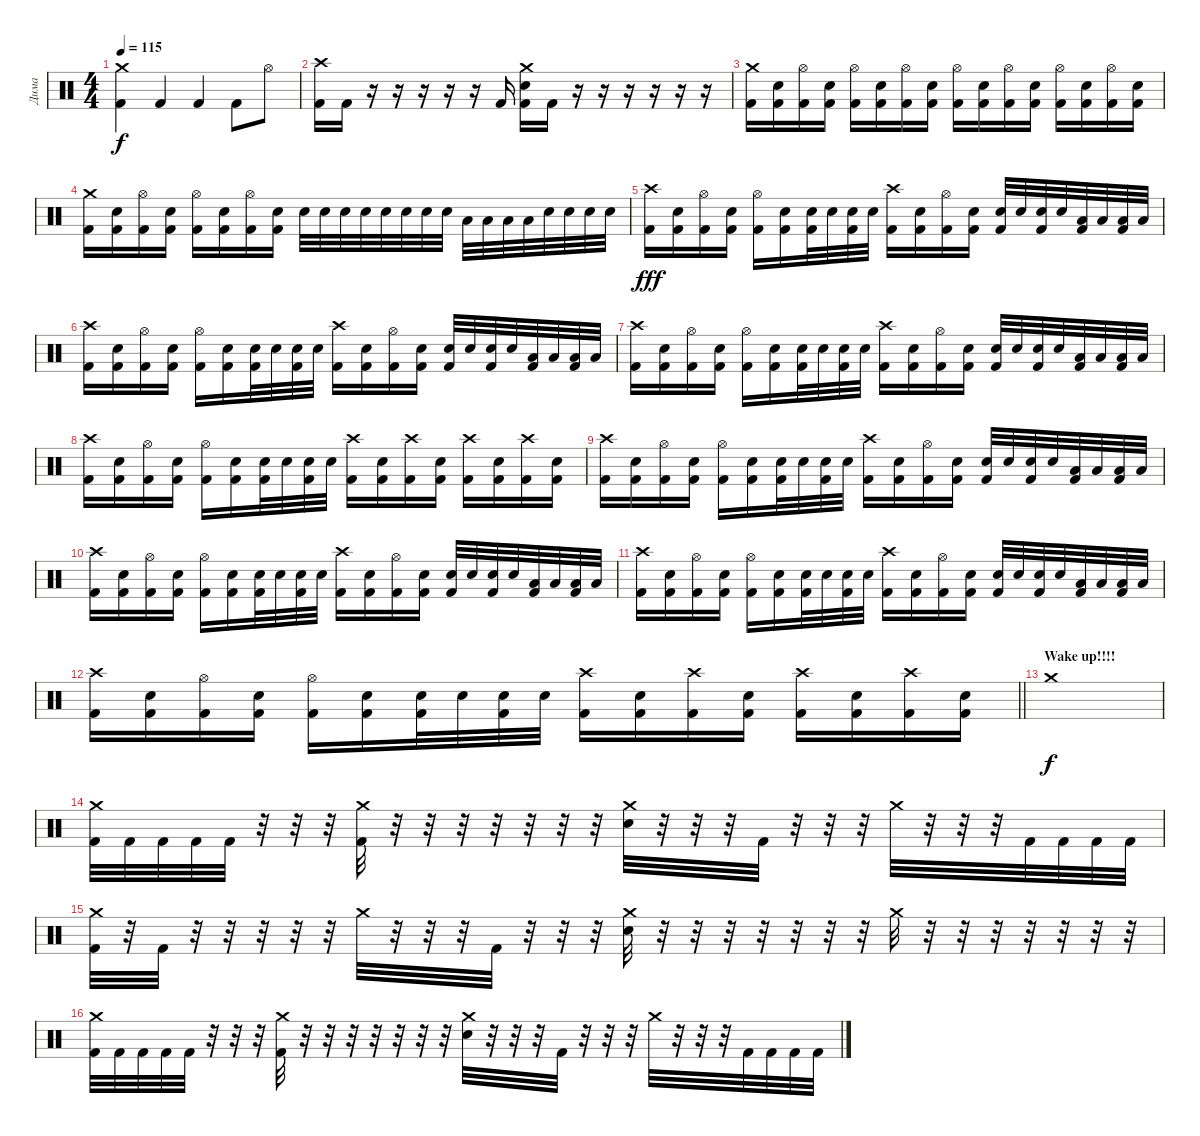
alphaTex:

\track ("Дима " "Дима ") {instrument percussion}
\staff {score}
\articulation defaults
\ts (4 4)
\tempo 115
\clef neutral
\ks c
("Crash medium (hit)" "Kick (hit) 2").4{dy f} "Kick (hit) 2".4 "Kick (hit) 2".4 "Kick (hit) 2".8 "Hi-Hat (open)".8 |
("Crash high (hit)" "Kick (hit) 2").16 "Kick (hit) 2".16 r.16 r.16 r.16 r.16 r.16 "Kick (hit) 2".16 ("Crash medium (hit)" "Electric Snare (hit)" "Kick (hit) 2").16 "Kick (hit) 2".16 r.16 r.16 r.16 r.16 r.16 r.16 |
("Crash medium (hit)" "Kick (hit) 2").16 ("Electric Snare (hit)" "Kick (hit) 2").16 ("Hi-Hat (open)" "Kick (hit) 2").16 ("Electric Snare (hit)" "Kick (hit) 2").16 ("Hi-Hat (open)" "Kick (hit) 2").16 ("Electric Snare (hit)" "Kick (hit) 2").16 ("Hi-Hat (open)" "Kick (hit) 2").16 ("Electric Snare (hit)" "Kick (hit) 2").16 ("Hi-Hat (open)" "Kick (hit) 2").16 ("Electric Snare (hit)" "Kick (hit) 2").16 ("Hi-Hat (open)" "Kick (hit) 2").16 ("Electric Snare (hit)" "Kick (hit) 2").16 ("Hi-Hat (open)" "Kick (hit) 2").16 ("Electric Snare (hit)" "Kick (hit) 2").16 ("Hi-Hat (open)" "Kick (hit) 2").16 ("Electric Snare (hit)" "Kick (hit) 2").16 |
("Crash medium (hit)" "Kick (hit) 2").16 ("Electric Snare (hit)" "Kick (hit) 2").16 ("Hi-Hat (open)" "Kick (hit) 2").16 ("Electric Snare (hit)" "Kick (hit) 2").16 ("Hi-Hat (open)" "Kick (hit) 2").16 ("Electric Snare (hit)" "Kick (hit) 2").16 ("Hi-Hat (open)" "Kick (hit) 2").16 ("Electric Snare (hit)" "Kick (hit) 2").16 "Electric Snare (hit)".32 "Electric Snare (hit)".32 "Electric Snare (hit)".32 "Electric Snare (hit)".32 "Electric Snare (hit)".32 "Electric Snare (hit)".32 "Electric Snare (hit)".32 "Electric Snare (hit)".32 "Low Tom (hit)".32 "Low Tom (hit)".32 "Low Tom (hit)".32 "Low Tom (hit)".32 "Electric Snare (hit)".32 "Electric Snare (hit)".32 "Electric Snare (hit)".32 "Electric Snare (hit)".32 |
("Crash high (hit)" "Kick (hit) 2").16{dy fff} ("Snare (hit) 2" "Kick (hit) 2").16 ("Hi-Hat (open)" "Kick (hit) 2").16 ("Snare (hit) 2" "Kick (hit) 2").16 ("Hi-Hat (open)" "Kick (hit) 2").16 ("Snare (hit) 2" "Kick (hit) 2").16 ("Snare (hit) 2" "Kick (hit) 2").32 "Snare (hit) 2".32 ("Snare (hit) 2" "Kick (hit) 2").32 "Snare (hit) 2".32 ("Crash high (hit)" "Kick (hit) 2").16 ("Snare (hit) 2" "Kick (hit) 2").16 ("Hi-Hat (open)" "Kick (hit) 2").16 ("Snare (hit) 2" "Kick (hit) 2").16 ("Snare (hit) 2" "Kick (hit) 2").32 "Snare (hit) 2".32 ("Snare (hit) 2" "Kick (hit) 2").32 "Snare (hit) 2".32 ("Low Tom (hit)" "Kick (hit) 2").32 "Low Tom (hit)".32 ("Low Tom (hit)" "Kick (hit) 2").32 "Low Tom (hit)".32 |
("Crash high (hit)" "Kick (hit) 2").16 ("Snare (hit) 2" "Kick (hit) 2").16 ("Hi-Hat (open)" "Kick (hit) 2").16 ("Snare (hit) 2" "Kick (hit) 2").16 ("Hi-Hat (open)" "Kick (hit) 2").16 ("Snare (hit) 2" "Kick (hit) 2").16 ("Snare (hit) 2" "Kick (hit) 2").32 "Snare (hit) 2".32 ("Snare (hit) 2" "Kick (hit) 2").32 "Snare (hit) 2".32 ("Crash high (hit)" "Kick (hit) 2").16 ("Snare (hit) 2" "Kick (hit) 2").16 ("Hi-Hat (open)" "Kick (hit) 2").16 ("Snare (hit) 2" "Kick (hit) 2").16 ("Snare (hit) 2" "Kick (hit) 2").32 "Snare (hit) 2".32 ("Snare (hit) 2" "Kick (hit) 2").32 "Snare (hit) 2".32 ("Low Tom (hit)" "Kick (hit) 2").32 "Low Tom (hit)".32 ("Low Tom (hit)" "Kick (hit) 2").32 "Low Tom (hit)".32 |
("Crash high (hit)" "Kick (hit) 2").16 ("Snare (hit) 2" "Kick (hit) 2").16 ("Hi-Hat (open)" "Kick (hit) 2").16 ("Snare (hit) 2" "Kick (hit) 2").16 ("Hi-Hat (open)" "Kick (hit) 2").16 ("Snare (hit) 2" "Kick (hit) 2").16 ("Snare (hit) 2" "Kick (hit) 2").32 "Snare (hit) 2".32 ("Snare (hit) 2" "Kick (hit) 2").32 "Snare (hit) 2".32 ("Crash high (hit)" "Kick (hit) 2").16 ("Snare (hit) 2" "Kick (hit) 2").16 ("Hi-Hat (open)" "Kick (hit) 2").16 ("Snare (hit) 2" "Kick (hit) 2").16 ("Snare (hit) 2" "Kick (hit) 2").32 "Snare (hit) 2".32 ("Snare (hit) 2" "Kick (hit) 2").32 "Snare (hit) 2".32 ("Low Tom (hit)" "Kick (hit) 2").32 "Low Tom (hit)".32 ("Low Tom (hit)" "Kick (hit) 2").32 "Low Tom (hit)".32 |
("Crash high (hit)" "Kick (hit) 2").16 ("Snare (hit) 2" "Kick (hit) 2").16 ("Hi-Hat (open)" "Kick (hit) 2").16 ("Snare (hit) 2" "Kick (hit) 2").16 ("Hi-Hat (open)" "Kick (hit) 2").16 ("Snare (hit) 2" "Kick (hit) 2").16 ("Snare (hit) 2" "Kick (hit) 2").32 "Snare (hit) 2".32 ("Snare (hit) 2" "Kick (hit) 2").32 "Snare (hit) 2".32 ("Crash high (hit)" "Kick (hit) 2").16 ("Snare (hit) 2" "Kick (hit) 2").16 ("Crash high (hit)" "Kick (hit) 2").16 ("Snare (hit) 2" "Kick (hit) 2").16 ("Crash high (hit)" "Kick (hit) 2").16 ("Snare (hit) 2" "Kick (hit) 2").16 ("Crash high (hit)" "Kick (hit) 2").16 ("Snare (hit) 2" "Kick (hit) 2").16 |
("Crash high (hit)" "Kick (hit) 2").16 ("Snare (hit) 2" "Kick (hit) 2").16 ("Hi-Hat (open)" "Kick (hit) 2").16 ("Snare (hit) 2" "Kick (hit) 2").16 ("Hi-Hat (open)" "Kick (hit) 2").16 ("Snare (hit) 2" "Kick (hit) 2").16 ("Snare (hit) 2" "Kick (hit) 2").32 "Snare (hit) 2".32 ("Snare (hit) 2" "Kick (hit) 2").32 "Snare (hit) 2".32 ("Crash high (hit)" "Kick (hit) 2").16 ("Snare (hit) 2" "Kick (hit) 2").16 ("Hi-Hat (open)" "Kick (hit) 2").16 ("Snare (hit) 2" "Kick (hit) 2").16 ("Snare (hit) 2" "Kick (hit) 2").32 "Snare (hit) 2".32 ("Snare (hit) 2" "Kick (hit) 2").32 "Snare (hit) 2".32 ("Low Tom (hit)" "Kick (hit) 2").32 "Low Tom (hit)".32 ("Low Tom (hit)" "Kick (hit) 2").32 "Low Tom (hit)".32 |
("Crash high (hit)" "Kick (hit) 2").16 ("Snare (hit) 2" "Kick (hit) 2").16 ("Hi-Hat (open)" "Kick (hit) 2").16 ("Snare (hit) 2" "Kick (hit) 2").16 ("Hi-Hat (open)" "Kick (hit) 2").16 ("Snare (hit) 2" "Kick (hit) 2").16 ("Snare (hit) 2" "Kick (hit) 2").32 "Snare (hit) 2".32 ("Snare (hit) 2" "Kick (hit) 2").32 "Snare (hit) 2".32 ("Crash high (hit)" "Kick (hit) 2").16 ("Snare (hit) 2" "Kick (hit) 2").16 ("Hi-Hat (open)" "Kick (hit) 2").16 ("Snare (hit) 2" "Kick (hit) 2").16 ("Snare (hit) 2" "Kick (hit) 2").32 "Snare (hit) 2".32 ("Snare (hit) 2" "Kick (hit) 2").32 "Snare (hit) 2".32 ("Low Tom (hit)" "Kick (hit) 2").32 "Low Tom (hit)".32 ("Low Tom (hit)" "Kick (hit) 2").32 "Low Tom (hit)".32 |
("Crash high (hit)" "Kick (hit) 2").16 ("Snare (hit) 2" "Kick (hit) 2").16 ("Hi-Hat (open)" "Kick (hit) 2").16 ("Snare (hit) 2" "Kick (hit) 2").16 ("Hi-Hat (open)" "Kick (hit) 2").16 ("Snare (hit) 2" "Kick (hit) 2").16 ("Snare (hit) 2" "Kick (hit) 2").32 "Snare (hit) 2".32 ("Snare (hit) 2" "Kick (hit) 2").32 "Snare (hit) 2".32 ("Crash high (hit)" "Kick (hit) 2").16 ("Snare (hit) 2" "Kick (hit) 2").16 ("Hi-Hat (open)" "Kick (hit) 2").16 ("Snare (hit) 2" "Kick (hit) 2").16 ("Snare (hit) 2" "Kick (hit) 2").32 "Snare (hit) 2".32 ("Snare (hit) 2" "Kick (hit) 2").32 "Snare (hit) 2".32 ("Low Tom (hit)" "Kick (hit) 2").32 "Low Tom (hit)".32 ("Low Tom (hit)" "Kick (hit) 2").32 "Low Tom (hit)".32 |
\barLineRight lightlight
("Crash high (hit)" "Kick (hit) 2").16 ("Snare (hit) 2" "Kick (hit) 2").16 ("Hi-Hat (open)" "Kick (hit) 2").16 ("Snare (hit) 2" "Kick (hit) 2").16 ("Hi-Hat (open)" "Kick (hit) 2").16 ("Snare (hit) 2" "Kick (hit) 2").16 ("Snare (hit) 2" "Kick (hit) 2").32 "Snare (hit) 2".32 ("Snare (hit) 2" "Kick (hit) 2").32 "Snare (hit) 2".32 ("Crash high (hit)" "Kick (hit) 2").16 ("Snare (hit) 2" "Kick (hit) 2").16 ("Crash high (hit)" "Kick (hit) 2").16 ("Snare (hit) 2" "Kick (hit) 2").16 ("Crash high (hit)" "Kick (hit) 2").16 ("Snare (hit) 2" "Kick (hit) 2").16 ("Crash high (hit)" "Kick (hit) 2").16 ("Snare (hit) 2" "Kick (hit) 2").16 |
\section ("" "Wake up!!!!")
"Crash medium (hit)".1{dy f} |
("Crash medium (hit)" "Kick (hit) 2").32 "Kick (hit) 2".32 "Kick (hit) 2".32 "Kick (hit) 2".32 "Kick (hit) 2".32 r.32 r.32 r.32 ("Crash medium (hit)" "Kick (hit) 2").32 r.32 r.32 r.32 r.32 r.32 r.32 r.32 ("Crash medium (hit)" "Electric Snare (hit)").32 r.32 r.32 r.32 "Kick (hit) 2".32 r.32 r.32 r.32 "Crash medium (hit)".32 r.32 r.32 r.32 "Kick (hit) 2".32 "Kick (hit) 2".32 "Kick (hit) 2".32 "Kick (hit) 2".32 |
("Crash medium (hit)" "Kick (hit) 2").32 r.32 "Kick (hit) 2".32 r.32 r.32 r.32 r.32 r.32 "Crash medium (hit)".32 r.32 r.32 r.32 "Kick (hit) 2".32 r.32 r.32 r.32 ("Crash medium (hit)" "Electric Snare (hit)").32 r.32 r.32 r.32 r.32 r.32 r.32 r.32 "Crash medium (hit)".32 r.32 r.32 r.32 r.32 r.32 r.32 r.32 |
("Crash medium (hit)" "Kick (hit) 2").32 "Kick (hit) 2".32 "Kick (hit) 2".32 "Kick (hit) 2".32 "Kick (hit) 2".32 r.32 r.32 r.32 ("Crash medium (hit)" "Kick (hit) 2").32 r.32 r.32 r.32 r.32 r.32 r.32 r.32 ("Crash medium (hit)" "Electric Snare (hit)").32 r.32 r.32 r.32 "Kick (hit) 2".32 r.32 r.32 r.32 "Crash medium (hit)".32 r.32 r.32 r.32 "Kick (hit) 2".32 "Kick (hit) 2".32 "Kick (hit) 2".32 "Kick (hit) 2".32
